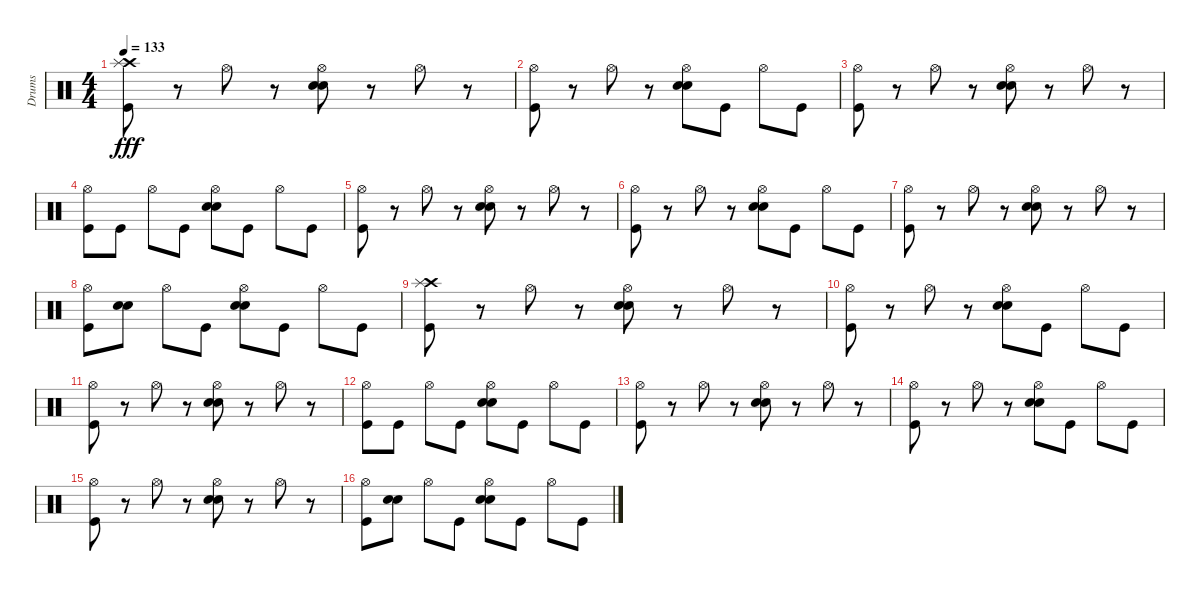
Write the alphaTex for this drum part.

\track ("Drums" "Drums") {instrument percussion}
\staff {score}
\articulation defaults
\ts (4 4)
\tempo 133
\clef neutral
\ks c
("Crash high (hit)" "Splash (hit)" "Kick (hit)").8{dy fff} r.8 "Hi-Hat (open)".8 r.8 ("Hi-Hat (open)" "Electric Snare (hit)" "Snare (hit) 2").8 r.8 "Hi-Hat (open)".8 r.8 |
("Hi-Hat (open)" "Kick (hit)").8 r.8 "Hi-Hat (open)".8 r.8 ("Hi-Hat (open)" "Electric Snare (hit)" "Snare (hit) 2").8 "Kick (hit)".8 "Hi-Hat (open)".8 "Kick (hit)".8 |
("Hi-Hat (open)" "Kick (hit)").8 r.8 "Hi-Hat (open)".8 r.8 ("Hi-Hat (open)" "Electric Snare (hit)" "Snare (hit) 2").8 r.8 "Hi-Hat (open)".8 r.8 |
("Hi-Hat (open)" "Kick (hit)").8 "Kick (hit)".8 "Hi-Hat (open)".8 "Kick (hit)".8 ("Hi-Hat (open)" "Electric Snare (hit)" "Snare (hit) 2").8 "Kick (hit)".8 "Hi-Hat (open)".8 "Kick (hit)".8 |
("Hi-Hat (open)" "Kick (hit)").8 r.8 "Hi-Hat (open)".8 r.8 ("Hi-Hat (open)" "Electric Snare (hit)" "Snare (hit) 2").8 r.8 "Hi-Hat (open)".8 r.8 |
("Hi-Hat (open)" "Kick (hit)").8 r.8 "Hi-Hat (open)".8 r.8 ("Hi-Hat (open)" "Electric Snare (hit)" "Snare (hit) 2").8 "Kick (hit)".8 "Hi-Hat (open)".8 "Kick (hit)".8 |
("Hi-Hat (open)" "Kick (hit)").8 r.8 "Hi-Hat (open)".8 r.8 ("Hi-Hat (open)" "Electric Snare (hit)" "Snare (hit) 2").8 r.8 "Hi-Hat (open)".8 r.8 |
("Hi-Hat (open)" "Kick (hit)").8 ("Electric Snare (hit)" "Snare (hit) 2").8 "Hi-Hat (open)".8 "Kick (hit)".8 ("Hi-Hat (open)" "Electric Snare (hit)" "Snare (hit) 2").8 "Kick (hit)".8 "Hi-Hat (open)".8 "Kick (hit)".8 |
("Crash high (hit)" "Splash (hit)" "Kick (hit)").8 r.8 "Hi-Hat (open)".8 r.8 ("Hi-Hat (open)" "Electric Snare (hit)" "Snare (hit) 2").8 r.8 "Hi-Hat (open)".8 r.8 |
("Hi-Hat (open)" "Kick (hit)").8 r.8 "Hi-Hat (open)".8 r.8 ("Hi-Hat (open)" "Electric Snare (hit)" "Snare (hit) 2").8 "Kick (hit)".8 "Hi-Hat (open)".8 "Kick (hit)".8 |
("Hi-Hat (open)" "Kick (hit)").8 r.8 "Hi-Hat (open)".8 r.8 ("Hi-Hat (open)" "Electric Snare (hit)" "Snare (hit) 2").8 r.8 "Hi-Hat (open)".8 r.8 |
("Hi-Hat (open)" "Kick (hit)").8 "Kick (hit)".8 "Hi-Hat (open)".8 "Kick (hit)".8 ("Hi-Hat (open)" "Electric Snare (hit)" "Snare (hit) 2").8 "Kick (hit)".8 "Hi-Hat (open)".8 "Kick (hit)".8 |
("Hi-Hat (open)" "Kick (hit)").8 r.8 "Hi-Hat (open)".8 r.8 ("Hi-Hat (open)" "Electric Snare (hit)" "Snare (hit) 2").8 r.8 "Hi-Hat (open)".8 r.8 |
("Hi-Hat (open)" "Kick (hit)").8 r.8 "Hi-Hat (open)".8 r.8 ("Hi-Hat (open)" "Electric Snare (hit)" "Snare (hit) 2").8 "Kick (hit)".8 "Hi-Hat (open)".8 "Kick (hit)".8 |
("Hi-Hat (open)" "Kick (hit)").8 r.8 "Hi-Hat (open)".8 r.8 ("Hi-Hat (open)" "Electric Snare (hit)" "Snare (hit) 2").8 r.8 "Hi-Hat (open)".8 r.8 |
("Hi-Hat (open)" "Kick (hit)").8 ("Electric Snare (hit)" "Snare (hit) 2").8 "Hi-Hat (open)".8 "Kick (hit)".8 ("Hi-Hat (open)" "Electric Snare (hit)" "Snare (hit) 2").8 "Kick (hit)".8 "Hi-Hat (open)".8 "Kick (hit)".8
